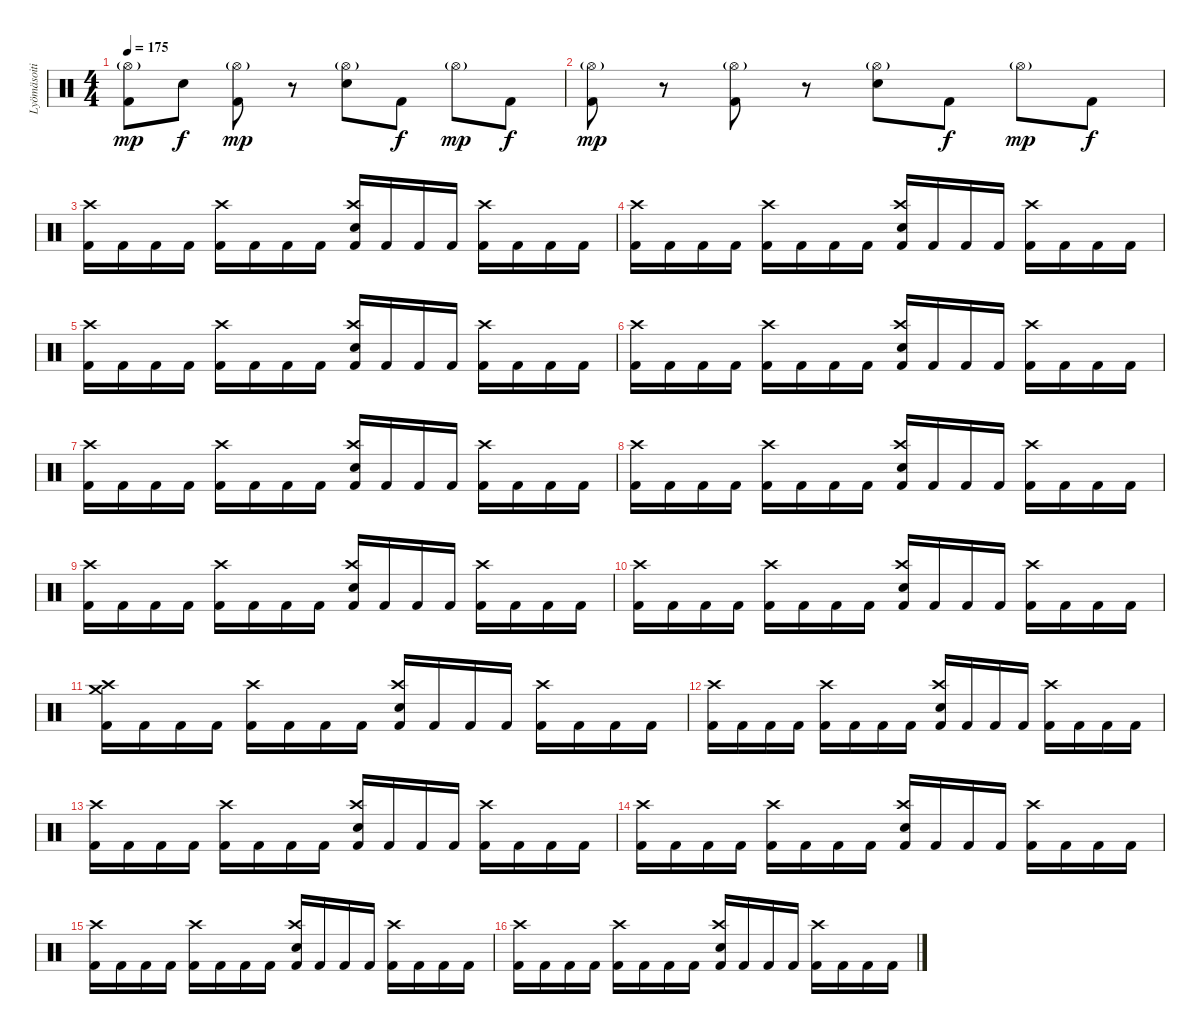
\track ("Lyömäsoitin" "Lyömäsoiti") {instrument percussion}
\staff {score}
\articulation defaults
\ts (4 4)
\tempo 175
\clef neutral
\ks c
("Kick (hit) 2" "Hi-Hat (open)"{g}).8{dy mp} "Snare (hit) 2".8{dy f} ("Kick (hit) 2" "Hi-Hat (open)"{g}).8{dy mp} r.8 ("Snare (hit) 2" "Hi-Hat (open)"{g}).8 "Kick (hit) 2".8{dy f} "Hi-Hat (open)"{g}.8{dy mp} "Kick (hit) 2".8{dy f} |
("Kick (hit) 2" "Hi-Hat (open)"{g}).8{dy mp} r.8 ("Kick (hit) 2" "Hi-Hat (open)"{g}).8 r.8 ("Snare (hit) 2" "Hi-Hat (open)"{g}).8 "Kick (hit) 2".8{dy f} "Hi-Hat (open)"{g}.8{dy mp} "Kick (hit) 2".8{dy f} |
("Kick (hit) 2" "Crash high (hit)").16 "Kick (hit) 2".16 "Kick (hit) 2".16 "Kick (hit) 2".16 ("Kick (hit) 2" "Crash high (hit)").16 "Kick (hit) 2".16 "Kick (hit) 2".16 "Kick (hit) 2".16 ("Kick (hit) 2" "Electric Snare (hit)" "Crash high (hit)").16 "Kick (hit) 2".16 "Kick (hit) 2".16 "Kick (hit) 2".16 ("Kick (hit) 2" "Crash high (hit)").16 "Kick (hit) 2".16 "Kick (hit) 2".16 "Kick (hit) 2".16 |
("Kick (hit) 2" "Crash high (hit)").16 "Kick (hit) 2".16 "Kick (hit) 2".16 "Kick (hit) 2".16 ("Kick (hit) 2" "Crash high (hit)").16 "Kick (hit) 2".16 "Kick (hit) 2".16 "Kick (hit) 2".16 ("Kick (hit) 2" "Electric Snare (hit)" "Crash high (hit)").16 "Kick (hit) 2".16 "Kick (hit) 2".16 "Kick (hit) 2".16 ("Kick (hit) 2" "Crash high (hit)").16 "Kick (hit) 2".16 "Kick (hit) 2".16 "Kick (hit) 2".16 |
("Kick (hit) 2" "Crash high (hit)").16 "Kick (hit) 2".16 "Kick (hit) 2".16 "Kick (hit) 2".16 ("Kick (hit) 2" "Crash high (hit)").16 "Kick (hit) 2".16 "Kick (hit) 2".16 "Kick (hit) 2".16 ("Kick (hit) 2" "Electric Snare (hit)" "Crash high (hit)").16 "Kick (hit) 2".16 "Kick (hit) 2".16 "Kick (hit) 2".16 ("Kick (hit) 2" "Crash high (hit)").16 "Kick (hit) 2".16 "Kick (hit) 2".16 "Kick (hit) 2".16 |
("Kick (hit) 2" "Crash high (hit)").16 "Kick (hit) 2".16 "Kick (hit) 2".16 "Kick (hit) 2".16 ("Kick (hit) 2" "Crash high (hit)").16 "Kick (hit) 2".16 "Kick (hit) 2".16 "Kick (hit) 2".16 ("Kick (hit) 2" "Electric Snare (hit)" "Crash high (hit)").16 "Kick (hit) 2".16 "Kick (hit) 2".16 "Kick (hit) 2".16 ("Kick (hit) 2" "Crash high (hit)").16 "Kick (hit) 2".16 "Kick (hit) 2".16 "Kick (hit) 2".16 |
("Kick (hit) 2" "Crash high (hit)").16 "Kick (hit) 2".16 "Kick (hit) 2".16 "Kick (hit) 2".16 ("Kick (hit) 2" "Crash high (hit)").16 "Kick (hit) 2".16 "Kick (hit) 2".16 "Kick (hit) 2".16 ("Kick (hit) 2" "Electric Snare (hit)" "Crash high (hit)").16 "Kick (hit) 2".16 "Kick (hit) 2".16 "Kick (hit) 2".16 ("Kick (hit) 2" "Crash high (hit)").16 "Kick (hit) 2".16 "Kick (hit) 2".16 "Kick (hit) 2".16 |
("Kick (hit) 2" "Crash high (hit)").16 "Kick (hit) 2".16 "Kick (hit) 2".16 "Kick (hit) 2".16 ("Kick (hit) 2" "Crash high (hit)").16 "Kick (hit) 2".16 "Kick (hit) 2".16 "Kick (hit) 2".16 ("Kick (hit) 2" "Electric Snare (hit)" "Crash high (hit)").16 "Kick (hit) 2".16 "Kick (hit) 2".16 "Kick (hit) 2".16 ("Kick (hit) 2" "Crash high (hit)").16 "Kick (hit) 2".16 "Kick (hit) 2".16 "Kick (hit) 2".16 |
("Kick (hit) 2" "Crash high (hit)").16 "Kick (hit) 2".16 "Kick (hit) 2".16 "Kick (hit) 2".16 ("Kick (hit) 2" "Crash high (hit)").16 "Kick (hit) 2".16 "Kick (hit) 2".16 "Kick (hit) 2".16 ("Kick (hit) 2" "Electric Snare (hit)" "Crash high (hit)").16 "Kick (hit) 2".16 "Kick (hit) 2".16 "Kick (hit) 2".16 ("Kick (hit) 2" "Crash high (hit)").16 "Kick (hit) 2".16 "Kick (hit) 2".16 "Kick (hit) 2".16 |
("Kick (hit) 2" "Crash high (hit)").16 "Kick (hit) 2".16 "Kick (hit) 2".16 "Kick (hit) 2".16 ("Kick (hit) 2" "Crash high (hit)").16 "Kick (hit) 2".16 "Kick (hit) 2".16 "Kick (hit) 2".16 ("Kick (hit) 2" "Electric Snare (hit)" "Crash high (hit)").16 "Kick (hit) 2".16 "Kick (hit) 2".16 "Kick (hit) 2".16 ("Kick (hit) 2" "Crash high (hit)").16 "Kick (hit) 2".16 "Kick (hit) 2".16 "Kick (hit) 2".16 |
("Kick (hit) 2" "Crash medium (hit)" "Crash high (hit)").16 "Kick (hit) 2".16 "Kick (hit) 2".16 "Kick (hit) 2".16 ("Kick (hit) 2" "Crash high (hit)").16 "Kick (hit) 2".16 "Kick (hit) 2".16 "Kick (hit) 2".16 ("Kick (hit) 2" "Electric Snare (hit)" "Crash high (hit)").16 "Kick (hit) 2".16 "Kick (hit) 2".16 "Kick (hit) 2".16 ("Kick (hit) 2" "Crash high (hit)").16 "Kick (hit) 2".16 "Kick (hit) 2".16 "Kick (hit) 2".16 |
("Kick (hit) 2" "Crash high (hit)").16 "Kick (hit) 2".16 "Kick (hit) 2".16 "Kick (hit) 2".16 ("Kick (hit) 2" "Crash high (hit)").16 "Kick (hit) 2".16 "Kick (hit) 2".16 "Kick (hit) 2".16 ("Kick (hit) 2" "Electric Snare (hit)" "Crash high (hit)").16 "Kick (hit) 2".16 "Kick (hit) 2".16 "Kick (hit) 2".16 ("Kick (hit) 2" "Crash high (hit)").16 "Kick (hit) 2".16 "Kick (hit) 2".16 "Kick (hit) 2".16 |
("Kick (hit) 2" "Crash high (hit)").16 "Kick (hit) 2".16 "Kick (hit) 2".16 "Kick (hit) 2".16 ("Kick (hit) 2" "Crash high (hit)").16 "Kick (hit) 2".16 "Kick (hit) 2".16 "Kick (hit) 2".16 ("Kick (hit) 2" "Electric Snare (hit)" "Crash high (hit)").16 "Kick (hit) 2".16 "Kick (hit) 2".16 "Kick (hit) 2".16 ("Kick (hit) 2" "Crash high (hit)").16 "Kick (hit) 2".16 "Kick (hit) 2".16 "Kick (hit) 2".16 |
("Kick (hit) 2" "Crash high (hit)").16 "Kick (hit) 2".16 "Kick (hit) 2".16 "Kick (hit) 2".16 ("Kick (hit) 2" "Crash high (hit)").16 "Kick (hit) 2".16 "Kick (hit) 2".16 "Kick (hit) 2".16 ("Kick (hit) 2" "Electric Snare (hit)" "Crash high (hit)").16 "Kick (hit) 2".16 "Kick (hit) 2".16 "Kick (hit) 2".16 ("Kick (hit) 2" "Crash high (hit)").16 "Kick (hit) 2".16 "Kick (hit) 2".16 "Kick (hit) 2".16 |
("Kick (hit) 2" "Crash high (hit)").16 "Kick (hit) 2".16 "Kick (hit) 2".16 "Kick (hit) 2".16 ("Kick (hit) 2" "Crash high (hit)").16 "Kick (hit) 2".16 "Kick (hit) 2".16 "Kick (hit) 2".16 ("Kick (hit) 2" "Electric Snare (hit)" "Crash high (hit)").16 "Kick (hit) 2".16 "Kick (hit) 2".16 "Kick (hit) 2".16 ("Kick (hit) 2" "Crash high (hit)").16 "Kick (hit) 2".16 "Kick (hit) 2".16 "Kick (hit) 2".16 |
("Kick (hit) 2" "Crash high (hit)").16 "Kick (hit) 2".16 "Kick (hit) 2".16 "Kick (hit) 2".16 ("Kick (hit) 2" "Crash high (hit)").16 "Kick (hit) 2".16 "Kick (hit) 2".16 "Kick (hit) 2".16 ("Kick (hit) 2" "Electric Snare (hit)" "Crash high (hit)").16 "Kick (hit) 2".16 "Kick (hit) 2".16 "Kick (hit) 2".16 ("Kick (hit) 2" "Crash high (hit)").16 "Kick (hit) 2".16 "Kick (hit) 2".16 "Kick (hit) 2".16
